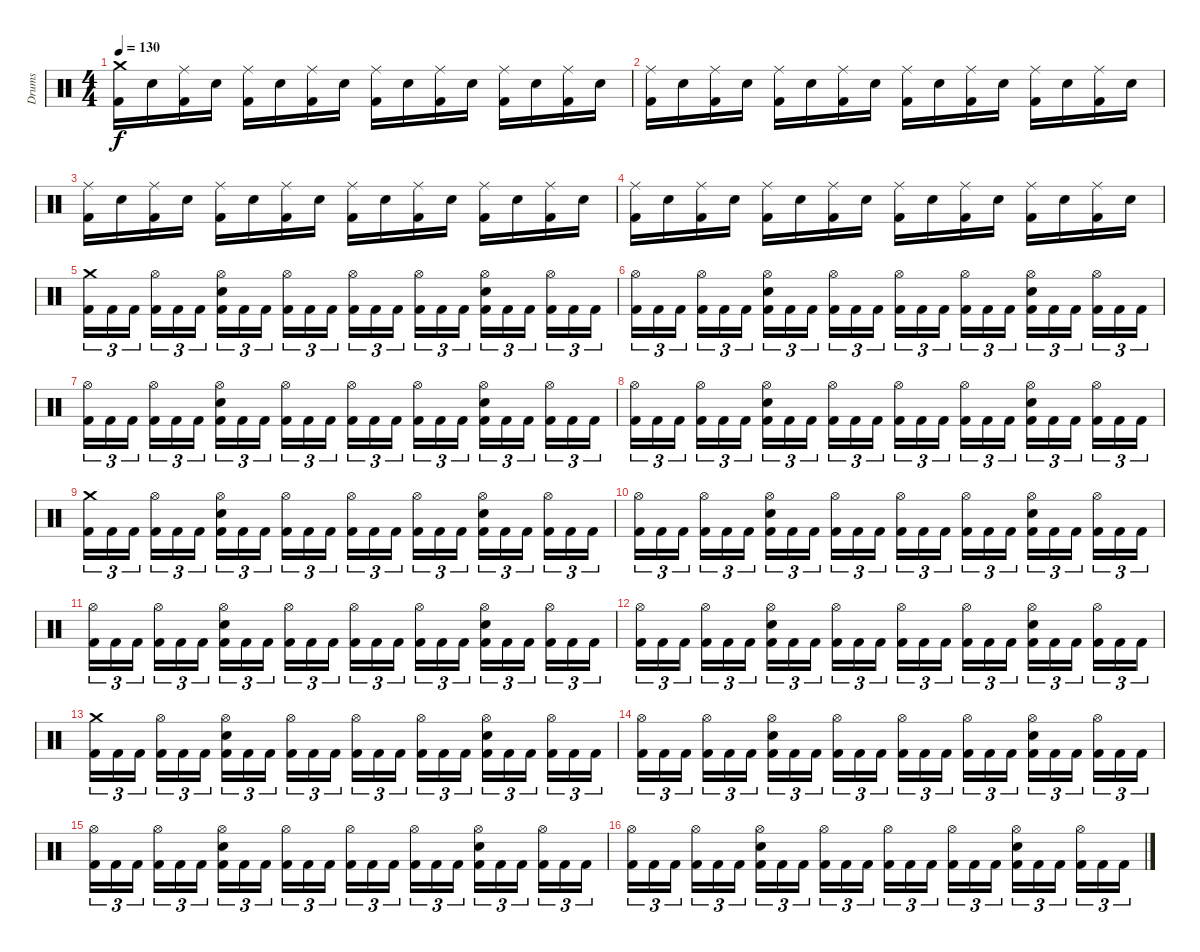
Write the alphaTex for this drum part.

\track ("Drums" "Drums") {instrument percussion}
\staff {score}
\articulation defaults
\ts (4 4)
\tempo 130
\clef neutral
\ks c
("Kick (hit) 2" "Crash medium (hit)").16{dy f} "Electric Snare (hit)".16 ("Kick (hit) 2" "Ride (middle)").16 "Electric Snare (hit)".16 ("Kick (hit) 2" "Ride (middle)").16 "Electric Snare (hit)".16 ("Kick (hit) 2" "Ride (middle)").16 "Electric Snare (hit)".16 ("Kick (hit) 2" "Ride (middle)").16 "Electric Snare (hit)".16 ("Kick (hit) 2" "Ride (middle)").16 "Electric Snare (hit)".16 ("Kick (hit) 2" "Ride (middle)").16 "Electric Snare (hit)".16 ("Kick (hit) 2" "Ride (middle)").16 "Electric Snare (hit)".16 |
("Kick (hit) 2" "Ride (middle)").16 "Electric Snare (hit)".16 ("Kick (hit) 2" "Ride (middle)").16 "Electric Snare (hit)".16 ("Kick (hit) 2" "Ride (middle)").16 "Electric Snare (hit)".16 ("Kick (hit) 2" "Ride (middle)").16 "Electric Snare (hit)".16 ("Kick (hit) 2" "Ride (middle)").16 "Electric Snare (hit)".16 ("Kick (hit) 2" "Ride (middle)").16 "Electric Snare (hit)".16 ("Kick (hit) 2" "Ride (middle)").16 "Electric Snare (hit)".16 ("Kick (hit) 2" "Ride (middle)").16 "Electric Snare (hit)".16 |
("Kick (hit) 2" "Ride (middle)").16 "Electric Snare (hit)".16 ("Kick (hit) 2" "Ride (middle)").16 "Electric Snare (hit)".16 ("Kick (hit) 2" "Ride (middle)").16 "Electric Snare (hit)".16 ("Kick (hit) 2" "Ride (middle)").16 "Electric Snare (hit)".16 ("Kick (hit) 2" "Ride (middle)").16 "Electric Snare (hit)".16 ("Kick (hit) 2" "Ride (middle)").16 "Electric Snare (hit)".16 ("Kick (hit) 2" "Ride (middle)").16 "Electric Snare (hit)".16 ("Kick (hit) 2" "Ride (middle)").16 "Electric Snare (hit)".16 |
("Kick (hit) 2" "Ride (middle)").16 "Electric Snare (hit)".16 ("Kick (hit) 2" "Ride (middle)").16 "Electric Snare (hit)".16 ("Kick (hit) 2" "Ride (middle)").16 "Electric Snare (hit)".16 ("Kick (hit) 2" "Ride (middle)").16 "Electric Snare (hit)".16 ("Kick (hit) 2" "Ride (middle)").16 "Electric Snare (hit)".16 ("Kick (hit) 2" "Ride (middle)").16 "Electric Snare (hit)".16 ("Kick (hit) 2" "Ride (middle)").16 "Electric Snare (hit)".16 ("Kick (hit) 2" "Ride (middle)").16 "Electric Snare (hit)".16 |
("Kick (hit) 2" "Crash medium (hit)").16{tu (3 2)} "Kick (hit) 2".16{tu (3 2)} "Kick (hit) 2".16{tu (3 2) beam splitsecondary} ("Kick (hit) 2" "Hi-Hat (open)").16{tu (3 2)} "Kick (hit) 2".16{tu (3 2)} "Kick (hit) 2".16{tu (3 2)} ("Kick (hit) 2" "Electric Snare (hit)" "Hi-Hat (open)").16{tu (3 2)} "Kick (hit) 2".16{tu (3 2)} "Kick (hit) 2".16{tu (3 2) beam splitsecondary} ("Kick (hit) 2" "Hi-Hat (open)").16{tu (3 2)} "Kick (hit) 2".16{tu (3 2)} "Kick (hit) 2".16{tu (3 2)} ("Kick (hit) 2" "Hi-Hat (open)").16{tu (3 2)} "Kick (hit) 2".16{tu (3 2)} "Kick (hit) 2".16{tu (3 2) beam splitsecondary} ("Kick (hit) 2" "Hi-Hat (open)").16{tu (3 2)} "Kick (hit) 2".16{tu (3 2)} "Kick (hit) 2".16{tu (3 2)} ("Kick (hit) 2" "Electric Snare (hit)" "Hi-Hat (open)").16{tu (3 2)} "Kick (hit) 2".16{tu (3 2)} "Kick (hit) 2".16{tu (3 2) beam splitsecondary} ("Kick (hit) 2" "Hi-Hat (open)").16{tu (3 2)} "Kick (hit) 2".16{tu (3 2)} "Kick (hit) 2".16{tu (3 2)} |
("Kick (hit) 2" "Hi-Hat (open)").16{tu (3 2)} "Kick (hit) 2".16{tu (3 2)} "Kick (hit) 2".16{tu (3 2) beam splitsecondary} ("Kick (hit) 2" "Hi-Hat (open)").16{tu (3 2)} "Kick (hit) 2".16{tu (3 2)} "Kick (hit) 2".16{tu (3 2)} ("Kick (hit) 2" "Electric Snare (hit)" "Hi-Hat (open)").16{tu (3 2)} "Kick (hit) 2".16{tu (3 2)} "Kick (hit) 2".16{tu (3 2) beam splitsecondary} ("Kick (hit) 2" "Hi-Hat (open)").16{tu (3 2)} "Kick (hit) 2".16{tu (3 2)} "Kick (hit) 2".16{tu (3 2)} ("Kick (hit) 2" "Hi-Hat (open)").16{tu (3 2)} "Kick (hit) 2".16{tu (3 2)} "Kick (hit) 2".16{tu (3 2) beam splitsecondary} ("Kick (hit) 2" "Hi-Hat (open)").16{tu (3 2)} "Kick (hit) 2".16{tu (3 2)} "Kick (hit) 2".16{tu (3 2)} ("Kick (hit) 2" "Electric Snare (hit)" "Hi-Hat (open)").16{tu (3 2)} "Kick (hit) 2".16{tu (3 2)} "Kick (hit) 2".16{tu (3 2) beam splitsecondary} ("Kick (hit) 2" "Hi-Hat (open)").16{tu (3 2)} "Kick (hit) 2".16{tu (3 2)} "Kick (hit) 2".16{tu (3 2)} |
("Kick (hit) 2" "Hi-Hat (open)").16{tu (3 2)} "Kick (hit) 2".16{tu (3 2)} "Kick (hit) 2".16{tu (3 2) beam splitsecondary} ("Kick (hit) 2" "Hi-Hat (open)").16{tu (3 2)} "Kick (hit) 2".16{tu (3 2)} "Kick (hit) 2".16{tu (3 2)} ("Kick (hit) 2" "Electric Snare (hit)" "Hi-Hat (open)").16{tu (3 2)} "Kick (hit) 2".16{tu (3 2)} "Kick (hit) 2".16{tu (3 2) beam splitsecondary} ("Kick (hit) 2" "Hi-Hat (open)").16{tu (3 2)} "Kick (hit) 2".16{tu (3 2)} "Kick (hit) 2".16{tu (3 2)} ("Kick (hit) 2" "Hi-Hat (open)").16{tu (3 2)} "Kick (hit) 2".16{tu (3 2)} "Kick (hit) 2".16{tu (3 2) beam splitsecondary} ("Kick (hit) 2" "Hi-Hat (open)").16{tu (3 2)} "Kick (hit) 2".16{tu (3 2)} "Kick (hit) 2".16{tu (3 2)} ("Kick (hit) 2" "Electric Snare (hit)" "Hi-Hat (open)").16{tu (3 2)} "Kick (hit) 2".16{tu (3 2)} "Kick (hit) 2".16{tu (3 2) beam splitsecondary} ("Kick (hit) 2" "Hi-Hat (open)").16{tu (3 2)} "Kick (hit) 2".16{tu (3 2)} "Kick (hit) 2".16{tu (3 2)} |
("Kick (hit) 2" "Hi-Hat (open)").16{tu (3 2)} "Kick (hit) 2".16{tu (3 2)} "Kick (hit) 2".16{tu (3 2) beam splitsecondary} ("Kick (hit) 2" "Hi-Hat (open)").16{tu (3 2)} "Kick (hit) 2".16{tu (3 2)} "Kick (hit) 2".16{tu (3 2)} ("Kick (hit) 2" "Electric Snare (hit)" "Hi-Hat (open)").16{tu (3 2)} "Kick (hit) 2".16{tu (3 2)} "Kick (hit) 2".16{tu (3 2) beam splitsecondary} ("Kick (hit) 2" "Hi-Hat (open)").16{tu (3 2)} "Kick (hit) 2".16{tu (3 2)} "Kick (hit) 2".16{tu (3 2)} ("Kick (hit) 2" "Hi-Hat (open)").16{tu (3 2)} "Kick (hit) 2".16{tu (3 2)} "Kick (hit) 2".16{tu (3 2) beam splitsecondary} ("Kick (hit) 2" "Hi-Hat (open)").16{tu (3 2)} "Kick (hit) 2".16{tu (3 2)} "Kick (hit) 2".16{tu (3 2)} ("Kick (hit) 2" "Electric Snare (hit)" "Hi-Hat (open)").16{tu (3 2)} "Kick (hit) 2".16{tu (3 2)} "Kick (hit) 2".16{tu (3 2) beam splitsecondary} ("Kick (hit) 2" "Hi-Hat (open)").16{tu (3 2)} "Kick (hit) 2".16{tu (3 2)} "Kick (hit) 2".16{tu (3 2)} |
("Kick (hit) 2" "Crash medium (hit)").16{tu (3 2)} "Kick (hit) 2".16{tu (3 2)} "Kick (hit) 2".16{tu (3 2) beam splitsecondary} ("Kick (hit) 2" "Hi-Hat (open)").16{tu (3 2)} "Kick (hit) 2".16{tu (3 2)} "Kick (hit) 2".16{tu (3 2)} ("Kick (hit) 2" "Electric Snare (hit)" "Hi-Hat (open)").16{tu (3 2)} "Kick (hit) 2".16{tu (3 2)} "Kick (hit) 2".16{tu (3 2) beam splitsecondary} ("Kick (hit) 2" "Hi-Hat (open)").16{tu (3 2)} "Kick (hit) 2".16{tu (3 2)} "Kick (hit) 2".16{tu (3 2)} ("Kick (hit) 2" "Hi-Hat (open)").16{tu (3 2)} "Kick (hit) 2".16{tu (3 2)} "Kick (hit) 2".16{tu (3 2) beam splitsecondary} ("Kick (hit) 2" "Hi-Hat (open)").16{tu (3 2)} "Kick (hit) 2".16{tu (3 2)} "Kick (hit) 2".16{tu (3 2)} ("Kick (hit) 2" "Electric Snare (hit)" "Hi-Hat (open)").16{tu (3 2)} "Kick (hit) 2".16{tu (3 2)} "Kick (hit) 2".16{tu (3 2) beam splitsecondary} ("Kick (hit) 2" "Hi-Hat (open)").16{tu (3 2)} "Kick (hit) 2".16{tu (3 2)} "Kick (hit) 2".16{tu (3 2)} |
("Kick (hit) 2" "Hi-Hat (open)").16{tu (3 2)} "Kick (hit) 2".16{tu (3 2)} "Kick (hit) 2".16{tu (3 2) beam splitsecondary} ("Kick (hit) 2" "Hi-Hat (open)").16{tu (3 2)} "Kick (hit) 2".16{tu (3 2)} "Kick (hit) 2".16{tu (3 2)} ("Kick (hit) 2" "Electric Snare (hit)" "Hi-Hat (open)").16{tu (3 2)} "Kick (hit) 2".16{tu (3 2)} "Kick (hit) 2".16{tu (3 2) beam splitsecondary} ("Kick (hit) 2" "Hi-Hat (open)").16{tu (3 2)} "Kick (hit) 2".16{tu (3 2)} "Kick (hit) 2".16{tu (3 2)} ("Kick (hit) 2" "Hi-Hat (open)").16{tu (3 2)} "Kick (hit) 2".16{tu (3 2)} "Kick (hit) 2".16{tu (3 2) beam splitsecondary} ("Kick (hit) 2" "Hi-Hat (open)").16{tu (3 2)} "Kick (hit) 2".16{tu (3 2)} "Kick (hit) 2".16{tu (3 2)} ("Kick (hit) 2" "Electric Snare (hit)" "Hi-Hat (open)").16{tu (3 2)} "Kick (hit) 2".16{tu (3 2)} "Kick (hit) 2".16{tu (3 2) beam splitsecondary} ("Kick (hit) 2" "Hi-Hat (open)").16{tu (3 2)} "Kick (hit) 2".16{tu (3 2)} "Kick (hit) 2".16{tu (3 2)} |
("Kick (hit) 2" "Hi-Hat (open)").16{tu (3 2)} "Kick (hit) 2".16{tu (3 2)} "Kick (hit) 2".16{tu (3 2) beam splitsecondary} ("Kick (hit) 2" "Hi-Hat (open)").16{tu (3 2)} "Kick (hit) 2".16{tu (3 2)} "Kick (hit) 2".16{tu (3 2)} ("Kick (hit) 2" "Electric Snare (hit)" "Hi-Hat (open)").16{tu (3 2)} "Kick (hit) 2".16{tu (3 2)} "Kick (hit) 2".16{tu (3 2) beam splitsecondary} ("Kick (hit) 2" "Hi-Hat (open)").16{tu (3 2)} "Kick (hit) 2".16{tu (3 2)} "Kick (hit) 2".16{tu (3 2)} ("Kick (hit) 2" "Hi-Hat (open)").16{tu (3 2)} "Kick (hit) 2".16{tu (3 2)} "Kick (hit) 2".16{tu (3 2) beam splitsecondary} ("Kick (hit) 2" "Hi-Hat (open)").16{tu (3 2)} "Kick (hit) 2".16{tu (3 2)} "Kick (hit) 2".16{tu (3 2)} ("Kick (hit) 2" "Electric Snare (hit)" "Hi-Hat (open)").16{tu (3 2)} "Kick (hit) 2".16{tu (3 2)} "Kick (hit) 2".16{tu (3 2) beam splitsecondary} ("Kick (hit) 2" "Hi-Hat (open)").16{tu (3 2)} "Kick (hit) 2".16{tu (3 2)} "Kick (hit) 2".16{tu (3 2)} |
("Kick (hit) 2" "Hi-Hat (open)").16{tu (3 2)} "Kick (hit) 2".16{tu (3 2)} "Kick (hit) 2".16{tu (3 2) beam splitsecondary} ("Kick (hit) 2" "Hi-Hat (open)").16{tu (3 2)} "Kick (hit) 2".16{tu (3 2)} "Kick (hit) 2".16{tu (3 2)} ("Kick (hit) 2" "Electric Snare (hit)" "Hi-Hat (open)").16{tu (3 2)} "Kick (hit) 2".16{tu (3 2)} "Kick (hit) 2".16{tu (3 2) beam splitsecondary} ("Kick (hit) 2" "Hi-Hat (open)").16{tu (3 2)} "Kick (hit) 2".16{tu (3 2)} "Kick (hit) 2".16{tu (3 2)} ("Kick (hit) 2" "Hi-Hat (open)").16{tu (3 2)} "Kick (hit) 2".16{tu (3 2)} "Kick (hit) 2".16{tu (3 2) beam splitsecondary} ("Kick (hit) 2" "Hi-Hat (open)").16{tu (3 2)} "Kick (hit) 2".16{tu (3 2)} "Kick (hit) 2".16{tu (3 2)} ("Kick (hit) 2" "Electric Snare (hit)" "Hi-Hat (open)").16{tu (3 2)} "Kick (hit) 2".16{tu (3 2)} "Kick (hit) 2".16{tu (3 2) beam splitsecondary} ("Kick (hit) 2" "Hi-Hat (open)").16{tu (3 2)} "Kick (hit) 2".16{tu (3 2)} "Kick (hit) 2".16{tu (3 2)} |
("Kick (hit) 2" "Crash medium (hit)").16{tu (3 2)} "Kick (hit) 2".16{tu (3 2)} "Kick (hit) 2".16{tu (3 2) beam splitsecondary} ("Kick (hit) 2" "Hi-Hat (open)").16{tu (3 2)} "Kick (hit) 2".16{tu (3 2)} "Kick (hit) 2".16{tu (3 2)} ("Kick (hit) 2" "Electric Snare (hit)" "Hi-Hat (open)").16{tu (3 2)} "Kick (hit) 2".16{tu (3 2)} "Kick (hit) 2".16{tu (3 2) beam splitsecondary} ("Kick (hit) 2" "Hi-Hat (open)").16{tu (3 2)} "Kick (hit) 2".16{tu (3 2)} "Kick (hit) 2".16{tu (3 2)} ("Kick (hit) 2" "Hi-Hat (open)").16{tu (3 2)} "Kick (hit) 2".16{tu (3 2)} "Kick (hit) 2".16{tu (3 2) beam splitsecondary} ("Kick (hit) 2" "Hi-Hat (open)").16{tu (3 2)} "Kick (hit) 2".16{tu (3 2)} "Kick (hit) 2".16{tu (3 2)} ("Kick (hit) 2" "Electric Snare (hit)" "Hi-Hat (open)").16{tu (3 2)} "Kick (hit) 2".16{tu (3 2)} "Kick (hit) 2".16{tu (3 2) beam splitsecondary} ("Kick (hit) 2" "Hi-Hat (open)").16{tu (3 2)} "Kick (hit) 2".16{tu (3 2)} "Kick (hit) 2".16{tu (3 2)} |
("Kick (hit) 2" "Hi-Hat (open)").16{tu (3 2)} "Kick (hit) 2".16{tu (3 2)} "Kick (hit) 2".16{tu (3 2) beam splitsecondary} ("Kick (hit) 2" "Hi-Hat (open)").16{tu (3 2)} "Kick (hit) 2".16{tu (3 2)} "Kick (hit) 2".16{tu (3 2)} ("Kick (hit) 2" "Electric Snare (hit)" "Hi-Hat (open)").16{tu (3 2)} "Kick (hit) 2".16{tu (3 2)} "Kick (hit) 2".16{tu (3 2) beam splitsecondary} ("Kick (hit) 2" "Hi-Hat (open)").16{tu (3 2)} "Kick (hit) 2".16{tu (3 2)} "Kick (hit) 2".16{tu (3 2)} ("Kick (hit) 2" "Hi-Hat (open)").16{tu (3 2)} "Kick (hit) 2".16{tu (3 2)} "Kick (hit) 2".16{tu (3 2) beam splitsecondary} ("Kick (hit) 2" "Hi-Hat (open)").16{tu (3 2)} "Kick (hit) 2".16{tu (3 2)} "Kick (hit) 2".16{tu (3 2)} ("Kick (hit) 2" "Electric Snare (hit)" "Hi-Hat (open)").16{tu (3 2)} "Kick (hit) 2".16{tu (3 2)} "Kick (hit) 2".16{tu (3 2) beam splitsecondary} ("Kick (hit) 2" "Hi-Hat (open)").16{tu (3 2)} "Kick (hit) 2".16{tu (3 2)} "Kick (hit) 2".16{tu (3 2)} |
("Kick (hit) 2" "Hi-Hat (open)").16{tu (3 2)} "Kick (hit) 2".16{tu (3 2)} "Kick (hit) 2".16{tu (3 2) beam splitsecondary} ("Kick (hit) 2" "Hi-Hat (open)").16{tu (3 2)} "Kick (hit) 2".16{tu (3 2)} "Kick (hit) 2".16{tu (3 2)} ("Kick (hit) 2" "Electric Snare (hit)" "Hi-Hat (open)").16{tu (3 2)} "Kick (hit) 2".16{tu (3 2)} "Kick (hit) 2".16{tu (3 2) beam splitsecondary} ("Kick (hit) 2" "Hi-Hat (open)").16{tu (3 2)} "Kick (hit) 2".16{tu (3 2)} "Kick (hit) 2".16{tu (3 2)} ("Kick (hit) 2" "Hi-Hat (open)").16{tu (3 2)} "Kick (hit) 2".16{tu (3 2)} "Kick (hit) 2".16{tu (3 2) beam splitsecondary} ("Kick (hit) 2" "Hi-Hat (open)").16{tu (3 2)} "Kick (hit) 2".16{tu (3 2)} "Kick (hit) 2".16{tu (3 2)} ("Kick (hit) 2" "Electric Snare (hit)" "Hi-Hat (open)").16{tu (3 2)} "Kick (hit) 2".16{tu (3 2)} "Kick (hit) 2".16{tu (3 2) beam splitsecondary} ("Kick (hit) 2" "Hi-Hat (open)").16{tu (3 2)} "Kick (hit) 2".16{tu (3 2)} "Kick (hit) 2".16{tu (3 2)} |
("Kick (hit) 2" "Hi-Hat (open)").16{tu (3 2)} "Kick (hit) 2".16{tu (3 2)} "Kick (hit) 2".16{tu (3 2) beam splitsecondary} ("Kick (hit) 2" "Hi-Hat (open)").16{tu (3 2)} "Kick (hit) 2".16{tu (3 2)} "Kick (hit) 2".16{tu (3 2)} ("Kick (hit) 2" "Electric Snare (hit)" "Hi-Hat (open)").16{tu (3 2)} "Kick (hit) 2".16{tu (3 2)} "Kick (hit) 2".16{tu (3 2) beam splitsecondary} ("Kick (hit) 2" "Hi-Hat (open)").16{tu (3 2)} "Kick (hit) 2".16{tu (3 2)} "Kick (hit) 2".16{tu (3 2)} ("Kick (hit) 2" "Hi-Hat (open)").16{tu (3 2)} "Kick (hit) 2".16{tu (3 2)} "Kick (hit) 2".16{tu (3 2) beam splitsecondary} ("Kick (hit) 2" "Hi-Hat (open)").16{tu (3 2)} "Kick (hit) 2".16{tu (3 2)} "Kick (hit) 2".16{tu (3 2)} ("Kick (hit) 2" "Electric Snare (hit)" "Hi-Hat (open)").16{tu (3 2)} "Kick (hit) 2".16{tu (3 2)} "Kick (hit) 2".16{tu (3 2) beam splitsecondary} ("Kick (hit) 2" "Hi-Hat (open)").16{tu (3 2)} "Kick (hit) 2".16{tu (3 2)} "Kick (hit) 2".16{tu (3 2)}
